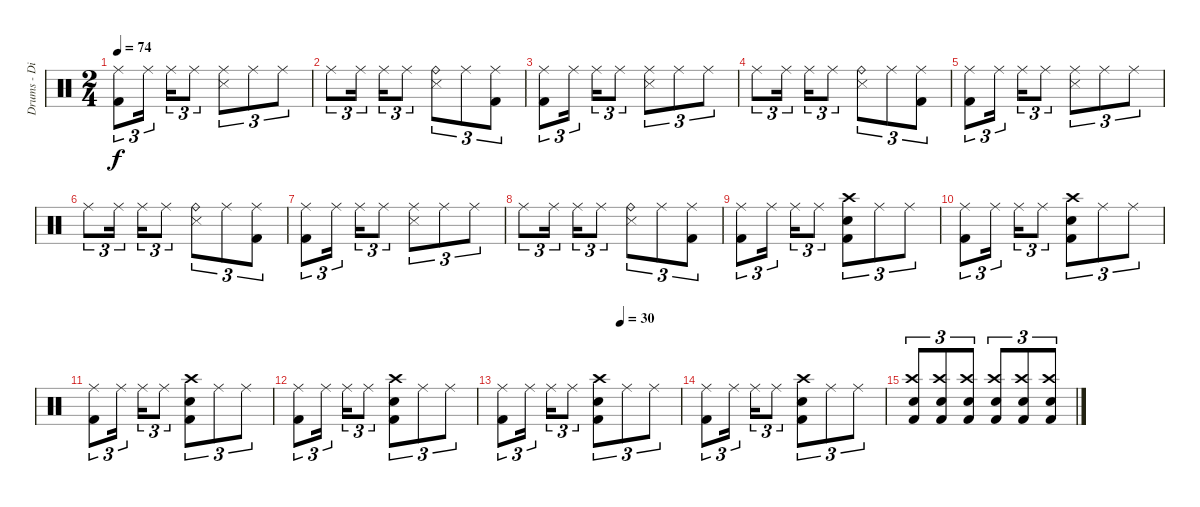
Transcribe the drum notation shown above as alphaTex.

\track ("Drums - Dino Campanella" "Drums - Di") {instrument percussion}
\staff {score}
\articulation defaults
\ts (2 4)
\tempo 74
\clef neutral
\ks c
("Ride (middle)" "Kick (hit) 2").8{tu (3 2) dy f} "Ride (middle)".16{tu (3 2)} "Ride (middle)".16{tu (3 2)} "Ride (middle)".8{tu (3 2)} ("Ride (middle)" "Snare (side stick) 3").8{tu (3 2)} "Ride (middle)".8{tu (3 2)} "Ride (middle)".8{tu (3 2)} |
"Ride (middle)".8{tu (3 2)} "Ride (middle)".16{tu (3 2)} "Ride (middle)".16{tu (3 2)} "Ride (middle)".8{tu (3 2)} ("Ride (bell)" "Snare (side stick) 3").8{tu (3 2)} "Ride (middle)".8{tu (3 2)} ("Ride (middle)" "Kick (hit) 2").8{tu (3 2)} |
("Ride (middle)" "Kick (hit) 2").8{tu (3 2)} "Ride (middle)".16{tu (3 2)} "Ride (middle)".16{tu (3 2)} "Ride (middle)".8{tu (3 2)} ("Ride (middle)" "Snare (side stick) 3").8{tu (3 2)} "Ride (middle)".8{tu (3 2)} "Ride (middle)".8{tu (3 2)} |
"Ride (middle)".8{tu (3 2)} "Ride (middle)".16{tu (3 2)} "Ride (middle)".16{tu (3 2)} "Ride (middle)".8{tu (3 2)} ("Ride (bell)" "Snare (side stick) 3").8{tu (3 2)} "Ride (middle)".8{tu (3 2)} ("Ride (middle)" "Kick (hit) 2").8{tu (3 2)} |
("Ride (middle)" "Kick (hit) 2").8{tu (3 2)} "Ride (middle)".16{tu (3 2)} "Ride (middle)".16{tu (3 2)} "Ride (middle)".8{tu (3 2)} ("Ride (middle)" "Snare (side stick) 3").8{tu (3 2)} "Ride (middle)".8{tu (3 2)} "Ride (middle)".8{tu (3 2)} |
"Ride (middle)".8{tu (3 2)} "Ride (middle)".16{tu (3 2)} "Ride (middle)".16{tu (3 2)} "Ride (middle)".8{tu (3 2)} ("Ride (bell)" "Snare (side stick) 3").8{tu (3 2)} "Ride (middle)".8{tu (3 2)} ("Ride (middle)" "Kick (hit) 2").8{tu (3 2)} |
("Ride (middle)" "Kick (hit) 2").8{tu (3 2)} "Ride (middle)".16{tu (3 2)} "Ride (middle)".16{tu (3 2)} "Ride (middle)".8{tu (3 2)} ("Ride (middle)" "Snare (side stick) 3").8{tu (3 2)} "Ride (middle)".8{tu (3 2)} "Ride (middle)".8{tu (3 2)} |
"Ride (middle)".8{tu (3 2)} "Ride (middle)".16{tu (3 2)} "Ride (middle)".16{tu (3 2)} "Ride (middle)".8{tu (3 2)} ("Ride (bell)" "Snare (side stick) 3").8{tu (3 2)} "Ride (middle)".8{tu (3 2)} ("Ride (middle)" "Kick (hit) 2").8{tu (3 2)} |
("Ride (middle)" "Kick (hit) 2").8{tu (3 2)} "Ride (middle)".16{tu (3 2)} "Ride (middle)".16{tu (3 2)} "Ride (middle)".8{tu (3 2)} ("Crash high (hit)" "Kick (hit) 2" "Snare (hit) 2").8{tu (3 2)} "Ride (middle)".8{tu (3 2)} "Ride (middle)".8{tu (3 2)} |
("Ride (middle)" "Kick (hit) 2").8{tu (3 2)} "Ride (middle)".16{tu (3 2)} "Ride (middle)".16{tu (3 2)} "Ride (middle)".8{tu (3 2)} ("Crash high (hit)" "Kick (hit) 2" "Snare (hit) 2").8{tu (3 2)} "Ride (middle)".8{tu (3 2)} "Ride (middle)".8{tu (3 2)} |
("Ride (middle)" "Kick (hit) 2").8{tu (3 2)} "Ride (middle)".16{tu (3 2)} "Ride (middle)".16{tu (3 2)} "Ride (middle)".8{tu (3 2)} ("Crash high (hit)" "Kick (hit) 2" "Snare (hit) 2").8{tu (3 2)} "Ride (middle)".8{tu (3 2)} "Ride (middle)".8{tu (3 2)} |
("Ride (middle)" "Kick (hit) 2").8{tu (3 2)} "Ride (middle)".16{tu (3 2)} "Ride (middle)".16{tu (3 2)} "Ride (middle)".8{tu (3 2)} ("Crash high (hit)" "Kick (hit) 2" "Snare (hit) 2").8{tu (3 2)} "Ride (middle)".8{tu (3 2)} "Ride (middle)".8{tu (3 2)} |
\tempo (30 0.6666666666666666)
("Ride (middle)" "Kick (hit) 2").8{tu (3 2)} "Ride (middle)".16{tu (3 2)} "Ride (middle)".16{tu (3 2)} "Ride (middle)".8{tu (3 2)} ("Crash high (hit)" "Kick (hit) 2" "Snare (hit) 2").8{tu (3 2)} "Ride (middle)".8{tu (3 2)} "Ride (middle)".8{tu (3 2)} |
("Ride (middle)" "Kick (hit) 2").8{tu (3 2)} "Ride (middle)".16{tu (3 2)} "Ride (middle)".16{tu (3 2)} "Ride (middle)".8{tu (3 2)} ("Crash high (hit)" "Kick (hit) 2" "Snare (hit) 2").8{tu (3 2)} "Ride (middle)".8{tu (3 2)} "Ride (middle)".8{tu (3 2)} |
("Crash high (hit)" "Snare (hit) 2" "Kick (hit) 2").8{tu (3 2)} ("Crash high (hit)" "Snare (hit) 2" "Kick (hit) 2").8{tu (3 2)} ("Crash high (hit)" "Snare (hit) 2" "Kick (hit) 2").8{tu (3 2)} ("Crash high (hit)" "Snare (hit) 2" "Kick (hit) 2").8{tu (3 2)} ("Crash high (hit)" "Snare (hit) 2" "Kick (hit) 2").8{tu (3 2)} ("Crash high (hit)" "Snare (hit) 2" "Kick (hit) 2").8{tu (3 2)}
